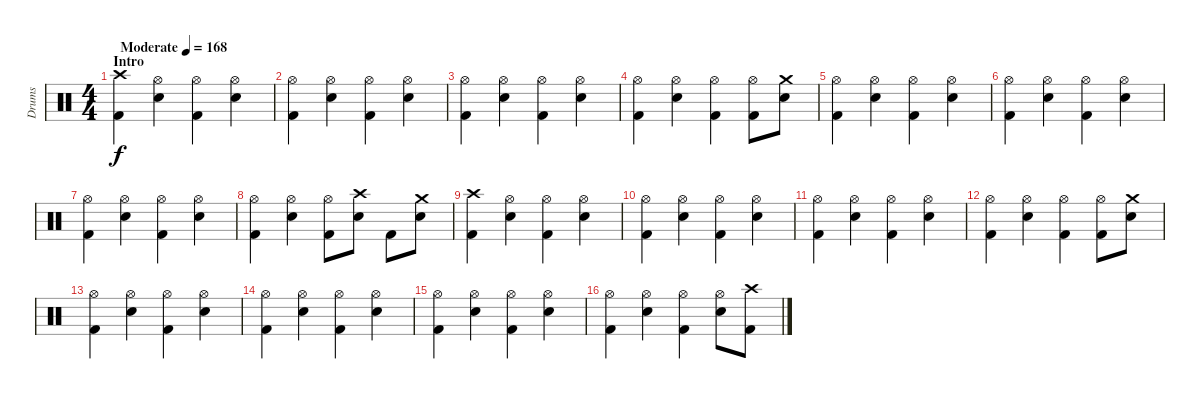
\track ("Drums" "Drums") {instrument percussion}
\staff {score}
\articulation defaults
\ts (4 4)
\section ("" "Intro")
\tempo (168 "Moderate")
\clef neutral
\ks c
("Crash high (hit)" "Kick (hit) 2").4{dy f} ("Hi-Hat (open)" "Snare (hit) 2").4 ("Hi-Hat (open)" "Kick (hit) 2").4 ("Hi-Hat (open)" "Snare (hit) 2").4 |
("Hi-Hat (open)" "Kick (hit) 2").4 ("Hi-Hat (open)" "Snare (hit) 2").4 ("Hi-Hat (open)" "Kick (hit) 2").4 ("Hi-Hat (open)" "Snare (hit) 2").4 |
("Hi-Hat (open)" "Kick (hit) 2").4 ("Hi-Hat (open)" "Snare (hit) 2").4 ("Hi-Hat (open)" "Kick (hit) 2").4 ("Hi-Hat (open)" "Snare (hit) 2").4 |
("Hi-Hat (open)" "Kick (hit) 2").4 ("Hi-Hat (open)" "Snare (hit) 2").4 ("Hi-Hat (open)" "Kick (hit) 2").4 ("Hi-Hat (open)" "Kick (hit) 2").8 ("Crash medium (hit)" "Snare (hit) 2").8 |
("Hi-Hat (open)" "Kick (hit) 2").4 ("Hi-Hat (open)" "Snare (hit) 2").4 ("Hi-Hat (open)" "Kick (hit) 2").4 ("Hi-Hat (open)" "Snare (hit) 2").4 |
("Hi-Hat (open)" "Kick (hit) 2").4 ("Hi-Hat (open)" "Snare (hit) 2").4 ("Hi-Hat (open)" "Kick (hit) 2").4 ("Hi-Hat (open)" "Snare (hit) 2").4 |
("Hi-Hat (open)" "Kick (hit) 2").4 ("Hi-Hat (open)" "Snare (hit) 2").4 ("Hi-Hat (open)" "Kick (hit) 2").4 ("Hi-Hat (open)" "Snare (hit) 2").4 |
("Hi-Hat (open)" "Kick (hit) 2").4 ("Hi-Hat (open)" "Snare (hit) 2").4 ("Hi-Hat (open)" "Kick (hit) 2").8 ("Crash high (hit)" "Snare (hit) 2").8 "Kick (hit) 2".8 ("Crash medium (hit)" "Snare (hit) 2").8 |
("Crash high (hit)" "Kick (hit) 2").4 ("Hi-Hat (open)" "Snare (hit) 2").4 ("Hi-Hat (open)" "Kick (hit) 2").4 ("Hi-Hat (open)" "Snare (hit) 2").4 |
("Hi-Hat (open)" "Kick (hit) 2").4 ("Hi-Hat (open)" "Snare (hit) 2").4 ("Hi-Hat (open)" "Kick (hit) 2").4 ("Hi-Hat (open)" "Snare (hit) 2").4 |
("Hi-Hat (open)" "Kick (hit) 2").4 ("Hi-Hat (open)" "Snare (hit) 2").4 ("Hi-Hat (open)" "Kick (hit) 2").4 ("Hi-Hat (open)" "Snare (hit) 2").4 |
("Hi-Hat (open)" "Kick (hit) 2").4 ("Hi-Hat (open)" "Snare (hit) 2").4 ("Hi-Hat (open)" "Kick (hit) 2").4 ("Hi-Hat (open)" "Kick (hit) 2").8 ("Crash medium (hit)" "Snare (hit) 2").8 |
("Hi-Hat (open)" "Kick (hit) 2").4 ("Hi-Hat (open)" "Snare (hit) 2").4 ("Hi-Hat (open)" "Kick (hit) 2").4 ("Hi-Hat (open)" "Snare (hit) 2").4 |
("Hi-Hat (open)" "Kick (hit) 2").4 ("Hi-Hat (open)" "Snare (hit) 2").4 ("Hi-Hat (open)" "Kick (hit) 2").4 ("Hi-Hat (open)" "Snare (hit) 2").4 |
("Hi-Hat (open)" "Kick (hit) 2").4 ("Hi-Hat (open)" "Snare (hit) 2").4 ("Hi-Hat (open)" "Kick (hit) 2").4 ("Hi-Hat (open)" "Snare (hit) 2").4 |
("Hi-Hat (open)" "Kick (hit) 2").4 ("Hi-Hat (open)" "Snare (hit) 2").4 ("Hi-Hat (open)" "Kick (hit) 2").4 ("Hi-Hat (open)" "Snare (hit) 2").8 ("Crash high (hit)" "Kick (hit) 2").8
